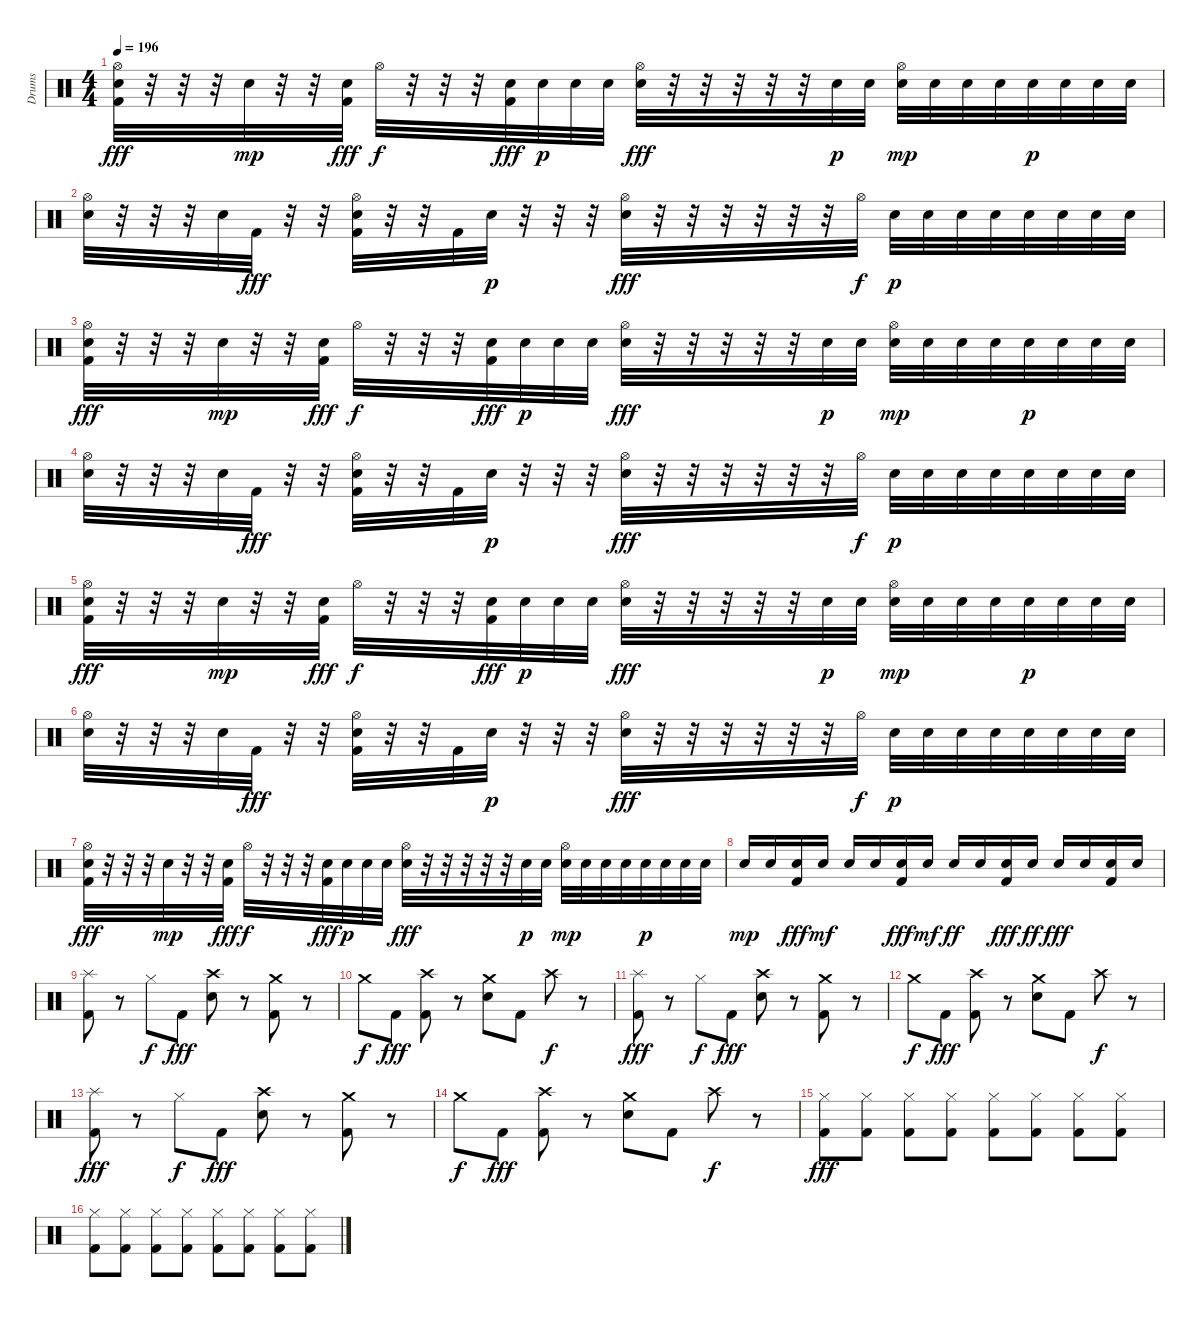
\track ("Drums" "Drums") {instrument percussion}
\staff {score}
\articulation defaults
\ts (4 4)
\tempo 196
\clef neutral
\ks c
("Hi-Hat (open)" "Snare (hit) 2" "Kick (hit) 2").32{dy fff} r.32 r.32 r.32 "Snare (hit) 2".32{dy mp} r.32 r.32 ("Snare (hit) 2" "Kick (hit) 2").32{dy fff} "Hi-Hat (open)".32{dy f} r.32 r.32 r.32 ("Snare (hit) 2" "Kick (hit) 2").32{dy fff} "Snare (hit) 2".32{dy p} "Snare (hit) 2".32 "Snare (hit) 2".32 ("Hi-Hat (open)" "Electric Snare (hit)").32{dy fff} r.32 r.32 r.32 r.32 r.32 "Electric Snare (hit)".32{dy p} "Snare (hit) 2".32 ("Hi-Hat (open)" "Electric Snare (hit)").32{dy mp} "Snare (hit) 2".32 "Electric Snare (hit)".32 "Snare (hit) 2".32 "Electric Snare (hit)".32{dy p} "Snare (hit) 2".32 "Electric Snare (hit)".32 "Snare (hit) 2".32 |
("Hi-Hat (open)" "Snare (hit) 2").32 r.32 r.32 r.32 "Snare (hit) 2".32 "Kick (hit) 2".32{dy fff} r.32 r.32 ("Hi-Hat (open)" "Snare (hit) 2" "Kick (hit) 2").32 r.32 r.32 "Kick (hit) 2".32 "Snare (hit) 2".32{dy p} r.32 r.32 r.32 ("Hi-Hat (open)" "Electric Snare (hit)").32{dy fff} r.32 r.32 r.32 r.32 r.32 r.32 "Hi-Hat (open)".32{dy f} "Snare (hit) 2".32{dy p} "Electric Snare (hit)".32 "Snare (hit) 2".32 "Electric Snare (hit)".32 "Snare (hit) 2".32 "Electric Snare (hit)".32 "Snare (hit) 2".32 "Electric Snare (hit)".32 |
("Hi-Hat (open)" "Snare (hit) 2" "Kick (hit) 2").32{dy fff} r.32 r.32 r.32 "Snare (hit) 2".32{dy mp} r.32 r.32 ("Snare (hit) 2" "Kick (hit) 2").32{dy fff} "Hi-Hat (open)".32{dy f} r.32 r.32 r.32 ("Snare (hit) 2" "Kick (hit) 2").32{dy fff} "Snare (hit) 2".32{dy p} "Snare (hit) 2".32 "Snare (hit) 2".32 ("Hi-Hat (open)" "Electric Snare (hit)").32{dy fff} r.32 r.32 r.32 r.32 r.32 "Electric Snare (hit)".32{dy p} "Snare (hit) 2".32 ("Hi-Hat (open)" "Electric Snare (hit)").32{dy mp} "Snare (hit) 2".32 "Electric Snare (hit)".32 "Snare (hit) 2".32 "Electric Snare (hit)".32{dy p} "Snare (hit) 2".32 "Electric Snare (hit)".32 "Snare (hit) 2".32 |
("Hi-Hat (open)" "Snare (hit) 2").32 r.32 r.32 r.32 "Snare (hit) 2".32 "Kick (hit) 2".32{dy fff} r.32 r.32 ("Hi-Hat (open)" "Snare (hit) 2" "Kick (hit) 2").32 r.32 r.32 "Kick (hit) 2".32 "Snare (hit) 2".32{dy p} r.32 r.32 r.32 ("Hi-Hat (open)" "Electric Snare (hit)").32{dy fff} r.32 r.32 r.32 r.32 r.32 r.32 "Hi-Hat (open)".32{dy f} "Snare (hit) 2".32{dy p} "Electric Snare (hit)".32 "Snare (hit) 2".32 "Electric Snare (hit)".32 "Snare (hit) 2".32 "Electric Snare (hit)".32 "Snare (hit) 2".32 "Electric Snare (hit)".32 |
("Hi-Hat (open)" "Snare (hit) 2" "Kick (hit) 2").32{dy fff} r.32 r.32 r.32 "Snare (hit) 2".32{dy mp} r.32 r.32 ("Snare (hit) 2" "Kick (hit) 2").32{dy fff} "Hi-Hat (open)".32{dy f} r.32 r.32 r.32 ("Snare (hit) 2" "Kick (hit) 2").32{dy fff} "Snare (hit) 2".32{dy p} "Snare (hit) 2".32 "Snare (hit) 2".32 ("Hi-Hat (open)" "Electric Snare (hit)").32{dy fff} r.32 r.32 r.32 r.32 r.32 "Electric Snare (hit)".32{dy p} "Snare (hit) 2".32 ("Hi-Hat (open)" "Electric Snare (hit)").32{dy mp} "Snare (hit) 2".32 "Electric Snare (hit)".32 "Snare (hit) 2".32 "Electric Snare (hit)".32{dy p} "Snare (hit) 2".32 "Electric Snare (hit)".32 "Snare (hit) 2".32 |
("Hi-Hat (open)" "Snare (hit) 2").32 r.32 r.32 r.32 "Snare (hit) 2".32 "Kick (hit) 2".32{dy fff} r.32 r.32 ("Hi-Hat (open)" "Snare (hit) 2" "Kick (hit) 2").32 r.32 r.32 "Kick (hit) 2".32 "Snare (hit) 2".32{dy p} r.32 r.32 r.32 ("Hi-Hat (open)" "Electric Snare (hit)").32{dy fff} r.32 r.32 r.32 r.32 r.32 r.32 "Hi-Hat (open)".32{dy f} "Snare (hit) 2".32{dy p} "Electric Snare (hit)".32 "Snare (hit) 2".32 "Electric Snare (hit)".32 "Snare (hit) 2".32 "Electric Snare (hit)".32 "Snare (hit) 2".32 "Electric Snare (hit)".32 |
("Hi-Hat (open)" "Snare (hit) 2" "Kick (hit) 2").32{dy fff} r.32 r.32 r.32 "Snare (hit) 2".32{dy mp} r.32 r.32 ("Snare (hit) 2" "Kick (hit) 2").32{dy fff} "Hi-Hat (open)".32{dy f} r.32 r.32 r.32 ("Snare (hit) 2" "Kick (hit) 2").32{dy fff} "Snare (hit) 2".32{dy p} "Snare (hit) 2".32 "Snare (hit) 2".32 ("Hi-Hat (open)" "Electric Snare (hit)").32{dy fff} r.32 r.32 r.32 r.32 r.32 "Electric Snare (hit)".32{dy p} "Snare (hit) 2".32 ("Hi-Hat (open)" "Electric Snare (hit)").32{dy mp} "Snare (hit) 2".32 "Electric Snare (hit)".32 "Snare (hit) 2".32 "Electric Snare (hit)".32{dy p} "Snare (hit) 2".32 "Electric Snare (hit)".32 "Snare (hit) 2".32 |
"Electric Snare (hit)".16{dy mp} "Electric Snare (hit)".16 ("Electric Snare (hit)" "Kick (hit) 2").16{dy fff} "Electric Snare (hit)".16{dy mf} "Electric Snare (hit)".16 "Electric Snare (hit)".16 ("Electric Snare (hit)" "Kick (hit) 2").16{dy fff} "Electric Snare (hit)".16{dy mf} "Electric Snare (hit)".16{dy ff} "Electric Snare (hit)".16 ("Electric Snare (hit)" "Kick (hit) 2").16{dy fff} "Electric Snare (hit)".16{dy ff} "Electric Snare (hit)".16{dy fff} "Electric Snare (hit)".16 ("Electric Snare (hit)" "Kick (hit) 2").16 "Electric Snare (hit)".16 |
("Splash (hit)" "Kick (hit) 2").8 r.8 "Hi-Hat (closed)".8{dy f} "Kick (hit) 2".8{dy fff} ("Crash high (hit)" "Electric Snare (hit)").8 r.8 ("Crash medium (hit)" "Kick (hit) 2").8 r.8 |
"Crash medium (hit)".8{dy f} "Kick (hit) 2".8{dy fff} ("Crash high (hit)" "Kick (hit) 2").8 r.8 ("Crash medium (hit)" "Electric Snare (hit)").8 "Kick (hit) 2".8 "Crash high (hit)".8{dy f} r.8 |
("Splash (hit)" "Kick (hit) 2").8{dy fff} r.8 "Hi-Hat (closed)".8{dy f} "Kick (hit) 2".8{dy fff} ("Crash high (hit)" "Electric Snare (hit)").8 r.8 ("Crash medium (hit)" "Kick (hit) 2").8 r.8 |
"Crash medium (hit)".8{dy f} "Kick (hit) 2".8{dy fff} ("Crash high (hit)" "Kick (hit) 2").8 r.8 ("Crash medium (hit)" "Electric Snare (hit)").8 "Kick (hit) 2".8 "Crash high (hit)".8{dy f} r.8 |
("Splash (hit)" "Kick (hit) 2").8{dy fff} r.8 "Hi-Hat (closed)".8{dy f} "Kick (hit) 2".8{dy fff} ("Crash high (hit)" "Electric Snare (hit)").8 r.8 ("Crash medium (hit)" "Kick (hit) 2").8 r.8 |
"Crash medium (hit)".8{dy f} "Kick (hit) 2".8{dy fff} ("Crash high (hit)" "Kick (hit) 2").8 r.8 ("Crash medium (hit)" "Electric Snare (hit)").8 "Kick (hit) 2".8 "Crash high (hit)".8{dy f} r.8 |
("Hi-Hat (closed)" "Kick (hit) 2").8{dy fff} ("Hi-Hat (closed)" "Kick (hit) 2").8 ("Hi-Hat (closed)" "Kick (hit) 2").8 ("Hi-Hat (closed)" "Kick (hit) 2").8 ("Hi-Hat (closed)" "Kick (hit) 2").8 ("Hi-Hat (closed)" "Kick (hit) 2").8 ("Hi-Hat (closed)" "Kick (hit) 2").8 ("Hi-Hat (closed)" "Kick (hit) 2").8 |
("Hi-Hat (closed)" "Kick (hit) 2").8 ("Hi-Hat (closed)" "Kick (hit) 2").8 ("Hi-Hat (closed)" "Kick (hit) 2").8 ("Hi-Hat (closed)" "Kick (hit) 2").8 ("Hi-Hat (closed)" "Kick (hit) 2").8 ("Hi-Hat (closed)" "Kick (hit) 2").8 ("Hi-Hat (closed)" "Kick (hit) 2").8 ("Hi-Hat (closed)" "Kick (hit) 2").8
